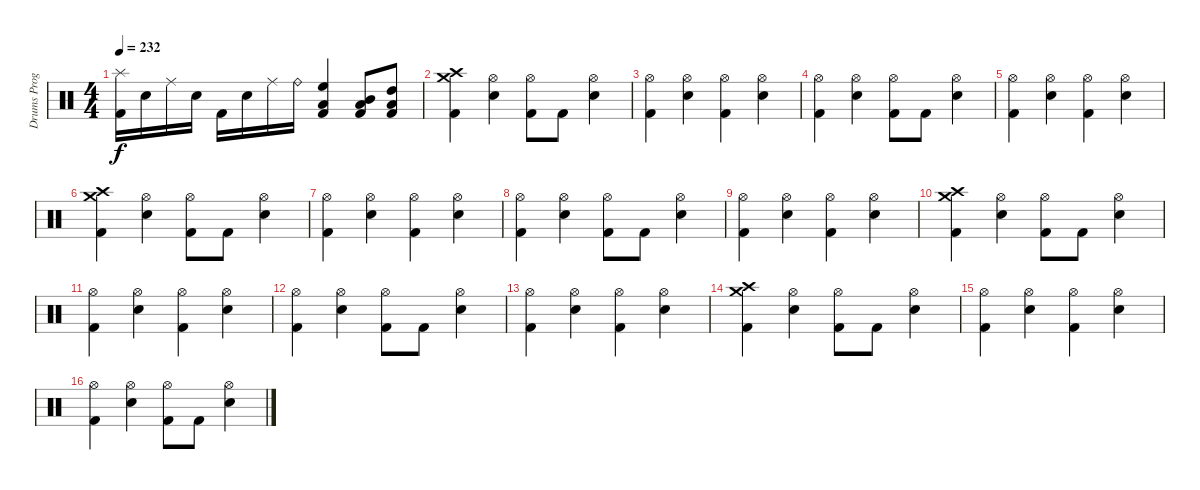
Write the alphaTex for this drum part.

\track ("Drums Programming" "Drums Prog") {instrument percussion}
\staff {score}
\articulation defaults
\ts (4 4)
\tempo 232
\clef neutral
\ks c
("Splash (hit)" "Kick (hit) 2").16{dy f} "Electric Snare (hit)".16 "Ride (middle)".16 "Electric Snare (hit)".16 "Kick (hit) 2".16 "Electric Snare (hit)".16 "Ride (middle)".16 "Ride (bell)".16 ("High Floor Tom (hit)" "Low Tom (hit)" "Kick (hit) 2").4 ("Mid Tom (hit)" "Low Tom (hit)" "Kick (hit) 2").8 ("High Tom (hit)" "Low Tom (hit)" "Kick (hit) 2").8 |
("Crash medium (hit)" "Crash high (hit)" "Kick (hit) 2").4 ("Hi-Hat (open)" "Electric Snare (hit)").4 ("Hi-Hat (open)" "Kick (hit) 2").8 "Kick (hit) 2".8 ("Hi-Hat (open)" "Electric Snare (hit)").4 |
("Hi-Hat (open)" "Kick (hit) 2").4 ("Hi-Hat (open)" "Electric Snare (hit)").4 ("Hi-Hat (open)" "Kick (hit) 2").4 ("Hi-Hat (open)" "Electric Snare (hit)").4 |
("Hi-Hat (open)" "Kick (hit) 2").4 ("Hi-Hat (open)" "Electric Snare (hit)").4 ("Hi-Hat (open)" "Kick (hit) 2").8 "Kick (hit) 2".8 ("Hi-Hat (open)" "Electric Snare (hit)").4 |
("Hi-Hat (open)" "Kick (hit) 2").4 ("Hi-Hat (open)" "Electric Snare (hit)").4 ("Hi-Hat (open)" "Kick (hit) 2").4 ("Hi-Hat (open)" "Electric Snare (hit)").4 |
("Crash medium (hit)" "Crash high (hit)" "Kick (hit) 2").4 ("Hi-Hat (open)" "Electric Snare (hit)").4 ("Hi-Hat (open)" "Kick (hit) 2").8 "Kick (hit) 2".8 ("Hi-Hat (open)" "Electric Snare (hit)").4 |
("Hi-Hat (open)" "Kick (hit) 2").4 ("Hi-Hat (open)" "Electric Snare (hit)").4 ("Hi-Hat (open)" "Kick (hit) 2").4 ("Hi-Hat (open)" "Electric Snare (hit)").4 |
("Hi-Hat (open)" "Kick (hit) 2").4 ("Hi-Hat (open)" "Electric Snare (hit)").4 ("Hi-Hat (open)" "Kick (hit) 2").8 "Kick (hit) 2".8 ("Hi-Hat (open)" "Electric Snare (hit)").4 |
("Hi-Hat (open)" "Kick (hit) 2").4 ("Hi-Hat (open)" "Electric Snare (hit)").4 ("Hi-Hat (open)" "Kick (hit) 2").4 ("Hi-Hat (open)" "Electric Snare (hit)").4 |
("Crash medium (hit)" "Crash high (hit)" "Kick (hit) 2").4 ("Hi-Hat (open)" "Electric Snare (hit)").4 ("Hi-Hat (open)" "Kick (hit) 2").8 "Kick (hit) 2".8 ("Hi-Hat (open)" "Electric Snare (hit)").4 |
("Hi-Hat (open)" "Kick (hit) 2").4 ("Hi-Hat (open)" "Electric Snare (hit)").4 ("Hi-Hat (open)" "Kick (hit) 2").4 ("Hi-Hat (open)" "Electric Snare (hit)").4 |
("Hi-Hat (open)" "Kick (hit) 2").4 ("Hi-Hat (open)" "Electric Snare (hit)").4 ("Hi-Hat (open)" "Kick (hit) 2").8 "Kick (hit) 2".8 ("Hi-Hat (open)" "Electric Snare (hit)").4 |
("Hi-Hat (open)" "Kick (hit) 2").4 ("Hi-Hat (open)" "Electric Snare (hit)").4 ("Hi-Hat (open)" "Kick (hit) 2").4 ("Hi-Hat (open)" "Electric Snare (hit)").4 |
("Crash medium (hit)" "Crash high (hit)" "Kick (hit) 2").4 ("Hi-Hat (open)" "Electric Snare (hit)").4 ("Hi-Hat (open)" "Kick (hit) 2").8 "Kick (hit) 2".8 ("Hi-Hat (open)" "Electric Snare (hit)").4 |
("Hi-Hat (open)" "Kick (hit) 2").4 ("Hi-Hat (open)" "Electric Snare (hit)").4 ("Hi-Hat (open)" "Kick (hit) 2").4 ("Hi-Hat (open)" "Electric Snare (hit)").4 |
("Hi-Hat (open)" "Kick (hit) 2").4 ("Hi-Hat (open)" "Electric Snare (hit)").4 ("Hi-Hat (open)" "Kick (hit) 2").8 "Kick (hit) 2".8 ("Hi-Hat (open)" "Electric Snare (hit)").4
